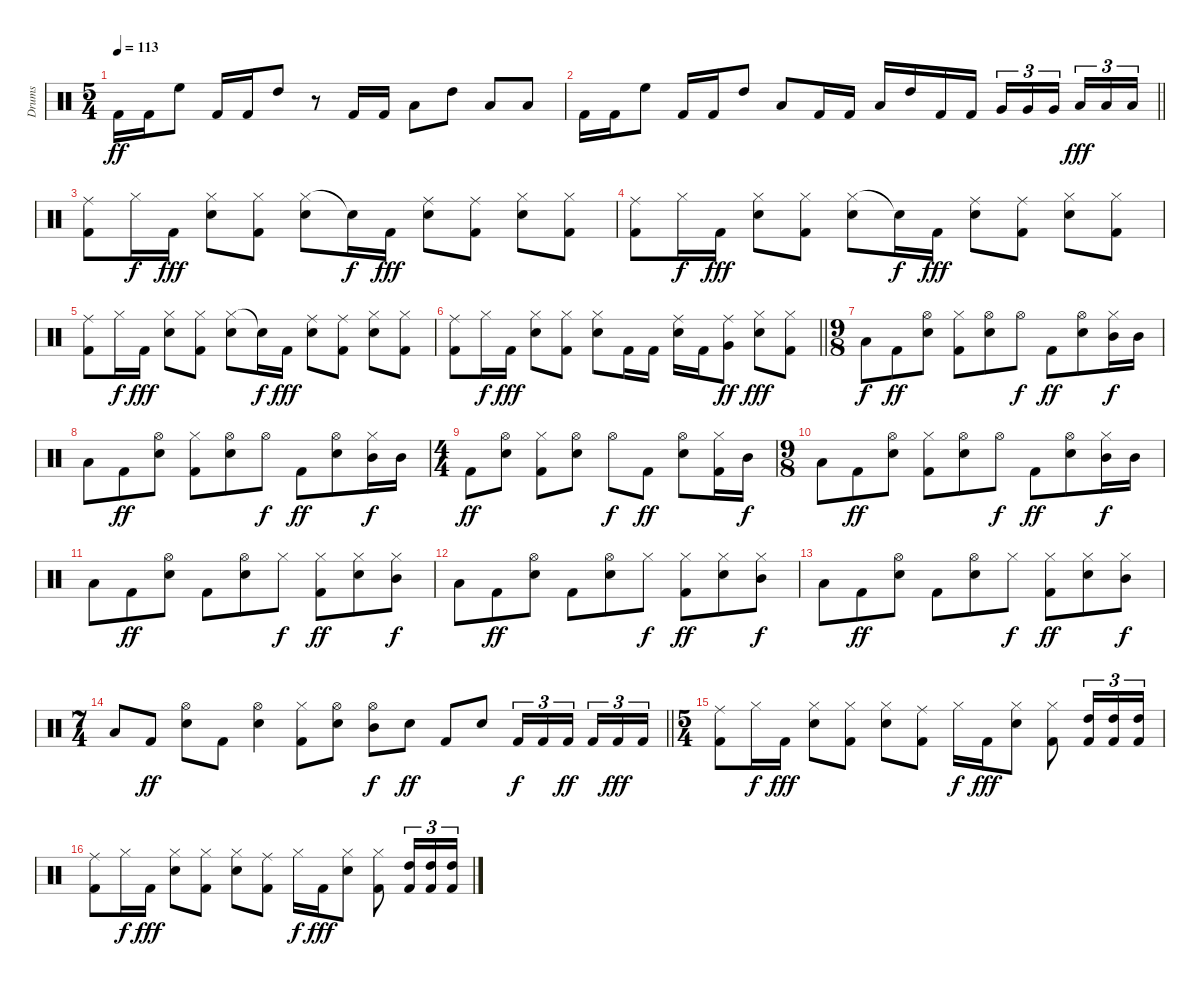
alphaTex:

\track ("Drums" "Drums") {instrument percussion}
\staff {score}
\articulation defaults
\ts (5 4)
\tempo 113
\clef neutral
\ks c "Kick (hit) 2".16{dy ff} "Kick (hit) 2".16 "High Floor Tom (hit)".8 "Kick (hit) 2".16 "Kick (hit) 2".16 "High Tom (hit)".8
r.8 "Kick (hit) 2".16 "Kick (hit) 2".16 "Low Tom (hit)".8 "High Tom (hit)".8 "Low Tom (hit)".8 "Low Floor Tom (hit)".8 |
\barLineRight lightlight "Kick (hit) 2".16 "Kick (hit) 2".16 "High Floor Tom (hit)".8 "Kick (hit) 2".16 "Kick (hit) 2".16 "High Tom (hit)".8 "Low Floor Tom (hit)".8 "Kick (hit) 2".16 "Kick (hit) 2".16 "Low Tom (hit)".16 "High Tom (hit)".16 "Kick (hit) 2".16 "Kick (hit) 2".16 "Very Low Tom (hit)".16{tu (3 2)} "Very Low Tom (hit)".16{tu (3 2)} "Very Low Tom (hit)".16{tu (3 2) beam splitsecondary} "Low Floor Tom (hit)".16{tu (3 2) dy fff} "Low Floor Tom (hit)".16{tu (3 2)} "Low Floor Tom (hit)".16{tu (3 2)}
|
\section ("" "")
("Ride (middle)" "Kick (hit) 2").8 "Hi-Hat (closed)".16{dy f} "Kick (hit) 2".16{dy fff} ("Hi-Hat (closed)" "Snare (hit) 2").8 ("Hi-Hat (closed)" "Kick (hit) 2").8 ("Hi-Hat (closed)" "Snare (hit) 2").8 "Snare (hit)"{t}.16{dy f} "Kick (hit) 2".16{dy fff} ("Ride (middle)" "Snare (hit) 2").8 ("Ride (middle)" "Kick (hit) 2").8 ("Hi-Hat (closed)" "Snare (hit) 2").8 ("Hi-Hat (closed)" "Kick (hit) 2").8 |
("Ride (middle)" "Kick (hit) 2").8 "Hi-Hat (closed)".16{dy f} "Kick (hit) 2".16{dy fff} ("Hi-Hat (closed)" "Snare (hit) 2").8 ("Hi-Hat (closed)" "Kick (hit) 2").8 ("Hi-Hat (closed)" "Snare (hit) 2").8 "Snare (hit)"{t}.16{dy f} "Kick (hit) 2".16{dy fff} ("Ride (middle)" "Snare (hit) 2").8 ("Ride (middle)" "Kick (hit) 2").8 ("Hi-Hat (closed)" "Snare (hit) 2").8 ("Hi-Hat (closed)" "Kick (hit) 2").8 |
("Ride (middle)" "Kick (hit) 2").8 "Hi-Hat (closed)".16{dy f} "Kick (hit) 2".16{dy fff} ("Hi-Hat (closed)" "Snare (hit) 2").8 ("Hi-Hat (closed)" "Kick (hit) 2").8 ("Hi-Hat (closed)" "Snare (hit) 2").8 "Snare (hit)"{t}.16{dy f} "Kick (hit) 2".16{dy fff} ("Ride (middle)" "Snare (hit) 2").8 ("Ride (middle)" "Kick (hit) 2").8 ("Hi-Hat (closed)" "Snare (hit) 2").8 ("Hi-Hat (closed)" "Kick (hit) 2").8 |
\barLineRight lightlight
("Ride (middle)" "Kick (hit) 2").8 "Hi-Hat (closed)".16{dy f} "Kick (hit) 2".16{dy fff} ("Hi-Hat (closed)" "Snare (hit) 2").8 ("Hi-Hat (closed)" "Kick (hit) 2").8 ("Hi-Hat (closed)" "Snare (hit) 2").8 "Kick (hit) 2".16 "Kick (hit) 2".16 ("Ride (middle)" "Snare (hit) 2").16 "Kick (hit) 2".16 ("Ride (middle)" "Very Low Tom (hit)").8{dy ff} ("Hi-Hat (closed)" "Snare (hit) 2").8{dy fff} ("Hi-Hat (closed)" "Kick (hit) 2").8 |
\ts (9 8)
\section ("" "")
"Low Tom (hit)".8{dy f} "Kick (hit) 2".8{dy ff} ("Hi-Hat (open)" "Snare (hit) 2").8 ("Hi-Hat (closed)" "Kick (hit) 2").8 ("Hi-Hat (open)" "Snare (hit) 2").8 "Hi-Hat (open)".8{dy f} "Kick (hit) 2".8{dy ff} ("Hi-Hat (open)" "Snare (hit) 2").8 ("Hi-Hat (closed)" "Mid Tom (hit)").16{dy f} "Mid Tom (hit)".16 |
"Low Tom (hit)".8 "Kick (hit) 2".8{dy ff} ("Hi-Hat (open)" "Snare (hit) 2").8 ("Hi-Hat (closed)" "Kick (hit) 2").8 ("Hi-Hat (open)" "Snare (hit) 2").8 "Hi-Hat (open)".8{dy f} "Kick (hit) 2".8{dy ff} ("Hi-Hat (open)" "Snare (hit) 2").8 ("Hi-Hat (closed)" "Mid Tom (hit)").16{dy f} "Mid Tom (hit)".16 |
\ts (4 4)
"Kick (hit) 2".8{dy ff} ("Hi-Hat (open)" "Snare (hit) 2").8 ("Hi-Hat (closed)" "Kick (hit) 2").8 ("Hi-Hat (open)" "Snare (hit) 2").8 "Hi-Hat (open)".8{dy f} "Kick (hit) 2".8{dy ff} ("Hi-Hat (open)" "Snare (hit) 2").8 ("Hi-Hat (closed)" "Kick (hit) 2").16 "Mid Tom (hit)".16{dy f} |
\ts (9 8)
"Low Tom (hit)".8 "Kick (hit) 2".8{dy ff} ("Hi-Hat (open)" "Snare (hit) 2").8 ("Hi-Hat (closed)" "Kick (hit) 2").8 ("Hi-Hat (open)" "Snare (hit) 2").8 "Hi-Hat (open)".8{dy f} "Kick (hit) 2".8{dy ff} ("Hi-Hat (open)" "Snare (hit) 2").8 ("Hi-Hat (closed)" "Mid Tom (hit)").16{dy f} "Mid Tom (hit)".16 |
"Low Tom (hit)".8 "Kick (hit) 2".8{dy ff} ("Hi-Hat (open)" "Snare (hit) 2").8 "Kick (hit) 2".8 ("Hi-Hat (open)" "Snare (hit) 2").8 "Hi-Hat (closed)".8{dy f} ("Hi-Hat (closed)" "Kick (hit) 2").8{dy ff} ("Hi-Hat (closed)" "Snare (hit) 2").8 ("Hi-Hat (closed)" "Mid Tom (hit)").8{dy f} |
"Low Tom (hit)".8 "Kick (hit) 2".8{dy ff} ("Hi-Hat (open)" "Snare (hit) 2").8 "Kick (hit) 2".8 ("Hi-Hat (open)" "Snare (hit) 2").8 "Hi-Hat (closed)".8{dy f} ("Hi-Hat (closed)" "Kick (hit) 2").8{dy ff} ("Hi-Hat (closed)" "Snare (hit) 2").8 ("Hi-Hat (closed)" "Mid Tom (hit)").8{dy f} |
"Low Tom (hit)".8 "Kick (hit) 2".8{dy ff} ("Hi-Hat (open)" "Snare (hit) 2").8 "Kick (hit) 2".8 ("Hi-Hat (open)" "Snare (hit) 2").8 "Hi-Hat (closed)".8{dy f} ("Hi-Hat (closed)" "Kick (hit) 2").8{dy ff} ("Hi-Hat (closed)" "Snare (hit) 2").8 ("Hi-Hat (closed)" "Mid Tom (hit)").8{dy f} |
\ts (7 4)
\barLineRight lightlight "Low Tom (hit)".8 "Kick (hit) 2".8{dy ff}
("Hi-Hat (open)" "Snare (hit) 2").8 "Kick (hit) 2".8 ("Hi-Hat (open)" "Snare (hit) 2").4 ("Hi-Hat (closed)" "Kick (hit) 2").8 ("Hi-Hat (open)" "Snare (hit) 2").8 ("Hi-Hat (open)" "Mid Tom (hit)").8{dy f} "Snare (hit) 2".8{dy ff} "Kick (hit) 2".8 "Snare (hit) 2".8 "Kick (hit) 2".16{tu (3 2) dy f} "Kick (hit) 2".16{tu (3 2)} "Kick (hit) 2".16{tu (3 2) dy ff beam splitsecondary} "Kick (hit) 2".16{tu (3 2)} "Kick (hit) 2".16{tu (3 2) dy fff} "Kick (hit) 2".16{tu (3 2)} |
\ts (5 4)
\section ("" "")
("Ride (middle)" "Kick (hit) 2").8 "Hi-Hat (closed)".16{dy f} "Kick (hit) 2".16{dy fff} ("Hi-Hat (closed)" "Snare (hit) 2").8 ("Hi-Hat (closed)" "Kick (hit) 2").8 ("Hi-Hat (closed)" "Snare (hit) 2").8 ("Ride (middle)" "Kick (hit) 2").8 "Hi-Hat (closed)".16{dy f} "Kick (hit) 2".16{dy fff} ("Hi-Hat (closed)" "Snare (hit) 2").8 ("Hi-Hat (closed)" "Kick (hit) 2").8 ("High Tom (hit)" "Kick (hit) 2").16{tu (3 2)} ("High Tom (hit)" "Kick (hit) 2").16{tu (3 2)} ("High Tom (hit)" "Kick (hit) 2").16{tu (3 2)} |
("Ride (middle)" "Kick (hit) 2").8 "Hi-Hat (closed)".16{dy f} "Kick (hit) 2".16{dy fff} ("Hi-Hat (closed)" "Snare (hit) 2").8 ("Hi-Hat (closed)" "Kick (hit) 2").8 ("Hi-Hat (closed)" "Snare (hit) 2").8 ("Ride (middle)" "Kick (hit) 2").8 "Hi-Hat (closed)".16{dy f} "Kick (hit) 2".16{dy fff} ("Hi-Hat (closed)" "Snare (hit) 2").8 ("Hi-Hat (closed)" "Kick (hit) 2").8 ("High Tom (hit)" "Kick (hit) 2").16{tu (3 2)} ("High Tom (hit)" "Kick (hit) 2").16{tu (3 2)} ("High Tom (hit)" "Kick (hit) 2").16{tu (3 2)}
